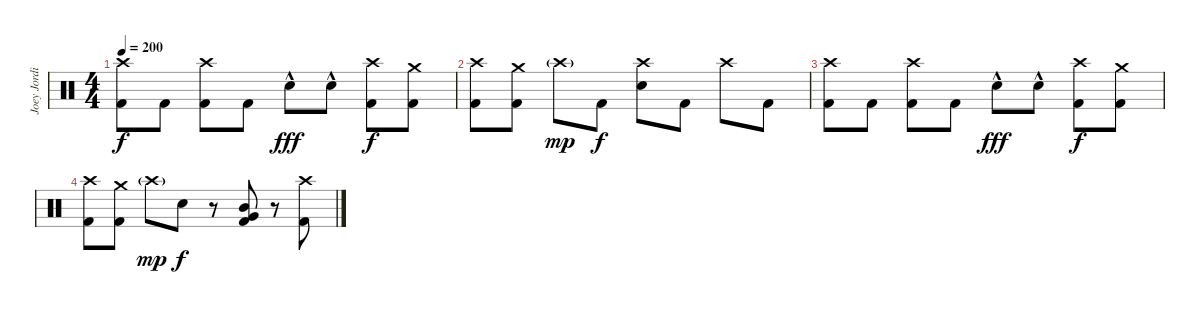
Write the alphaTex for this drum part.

\track ("Joey Jordison" "Joey Jordi") {instrument percussion}
\staff {score}
\articulation defaults
\ts (4 4)
\tempo 200
\clef neutral
\ks c
("Crash high (hit)" "Kick (hit) 2").8{dy f} "Kick (hit) 2".8 ("Crash high (hit)" "Kick (hit) 2").8 "Kick (hit) 2".8 "Electric Snare (hit)"{hac}.8{dy fff} "Electric Snare (hit)"{hac}.8 ("Crash high (hit)" "Kick (hit) 2").8{dy f} ("Crash medium (hit)" "Kick (hit) 2").8 |
("Crash high (hit)" "Kick (hit) 2").8 ("Crash medium (hit)" "Kick (hit) 2").8 "Crash high (hit)"{g}.8{dy mp} "Kick (hit) 2".8{dy f} ("Crash high (hit)" "Electric Snare (hit)").8 "Kick (hit) 2".8 "Crash high (hit)".8 "Kick (hit) 2".8 |
("Crash high (hit)" "Kick (hit) 2").8 "Kick (hit) 2".8 ("Crash high (hit)" "Kick (hit) 2").8 "Kick (hit) 2".8 "Electric Snare (hit)"{hac}.8{dy fff} "Electric Snare (hit)"{hac}.8 ("Crash high (hit)" "Kick (hit) 2").8{dy f} ("Crash medium (hit)" "Kick (hit) 2").8 |
("Crash high (hit)" "Kick (hit) 2").8 ("Crash medium (hit)" "Kick (hit) 2").8 "Crash high (hit)"{g}.8{dy mp} "Electric Snare (hit)".8{dy f} r.8 ("Very Low Tom (hit)" "Mid Tom (hit)" "Kick (hit) 2").8 r.8 ("Crash high (hit)" "Kick (hit) 2").8
